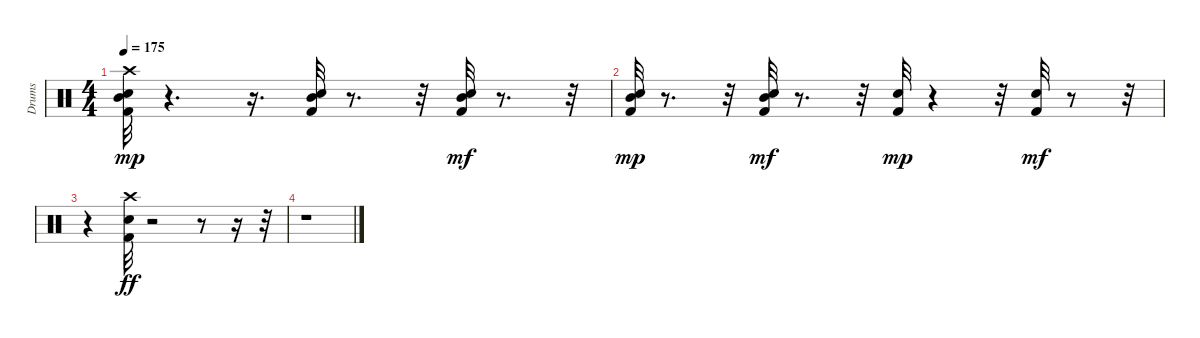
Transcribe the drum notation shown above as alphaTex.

\track ("Drums" "Drums") {instrument percussion}
\staff {score}
\articulation defaults
\ts (4 4)
\tempo 175
\clef neutral
\ks c
("Snare (hit) 2" "Mid Tom (hit)" "Kick (hit) 2" "Crash high (hit)").32{dy mp} r.4{d} r.16{d} ("Snare (hit) 2" "Mid Tom (hit)" "Kick (hit) 2").32 r.8{d} r.32 ("Kick (hit) 2" "Snare (hit) 2" "Mid Tom (hit)").32{dy mf} r.8{d} r.32 |
("Mid Tom (hit)" "Snare (hit) 2" "Kick (hit) 2").32{dy mp} r.8{d} r.32 ("Mid Tom (hit)" "Snare (hit) 2" "Kick (hit) 2").32{dy mf} r.8{d} r.32 ("Snare (hit) 2" "Kick (hit) 2").32{dy mp} r.4 r.32 ("Snare (hit) 2" "Kick (hit) 2").32{dy mf} r.8 r.32 |
r.4 ("Crash high (hit)" "Snare (hit) 2" "Kick (hit) 2").32{dy ff} r.2 r.8 r.16 r.32 |
r.1
